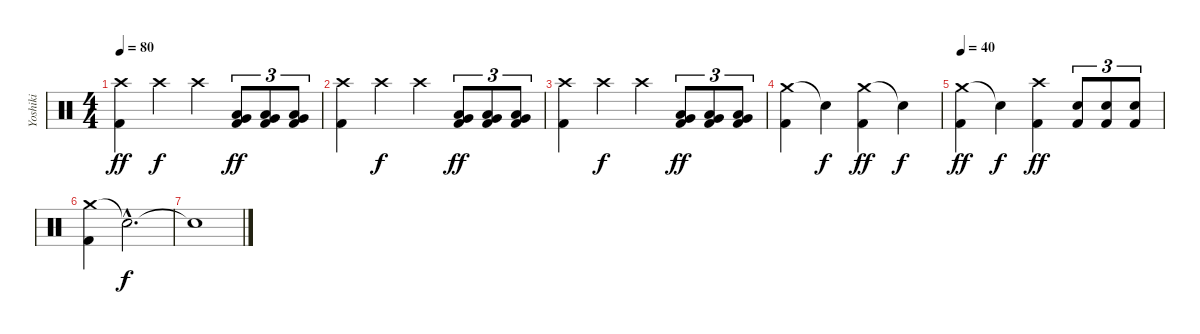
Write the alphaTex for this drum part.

\track ("Yoshiki" "Yoshiki") {instrument percussion}
\staff {score}
\articulation defaults
\ts (4 4)
\tempo 80
\clef neutral
\ks c
("Crash high (hit)" "Kick (hit) 2").4{dy ff} "Crash high (hit)".4{dy f} "Crash high (hit)".4 ("Very Low Tom (hit)" "Low Floor Tom (hit)" "Kick (hit) 2").8{tu (3 2) dy ff} ("Very Low Tom (hit)" "Low Floor Tom (hit)" "Kick (hit) 2").8{tu (3 2)} ("Very Low Tom (hit)" "Low Floor Tom (hit)" "Kick (hit) 2").8{tu (3 2)} |
("Crash high (hit)" "Kick (hit) 2").4 "Crash high (hit)".4{dy f} "Crash high (hit)".4 ("Very Low Tom (hit)" "Low Floor Tom (hit)" "Kick (hit) 2").8{tu (3 2) dy ff} ("Very Low Tom (hit)" "Low Floor Tom (hit)" "Kick (hit) 2").8{tu (3 2)} ("Very Low Tom (hit)" "Low Floor Tom (hit)" "Kick (hit) 2").8{tu (3 2)} |
("Crash high (hit)" "Kick (hit) 2").4 "Crash high (hit)".4{dy f} "Crash high (hit)".4 ("Very Low Tom (hit)" "Low Floor Tom (hit)" "Kick (hit) 2").8{tu (3 2) dy ff} ("Very Low Tom (hit)" "Low Floor Tom (hit)" "Kick (hit) 2").8{tu (3 2)} ("Very Low Tom (hit)" "Low Floor Tom (hit)" "Kick (hit) 2").8{tu (3 2)} |
("Crash medium (hit)" "Kick (hit) 2").4 "Snare (hit)"{t}.4{dy f} ("Crash medium (hit)" "Kick (hit) 2").4{dy ff} "Snare (hit)"{t}.4{dy f} |
\tempo 40
("Crash medium (hit)" "Kick (hit) 2").4{dy ff} "Snare (hit)"{t}.4{dy f} ("Crash high (hit)" "Kick (hit) 2").4{dy ff} ("Snare (hit) 2" "Kick (hit) 2").8{tu (3 2)} ("Snare (hit) 2" "Kick (hit) 2").8{tu (3 2)} ("Snare (hit) 2" "Kick (hit) 2").8{tu (3 2)} |
("Crash medium (hit)" "Kick (hit) 2").4 "Snare (hit)"{hac t}.2{d dy f} |
"Snare (hit)"{t}.1{volume 3}
